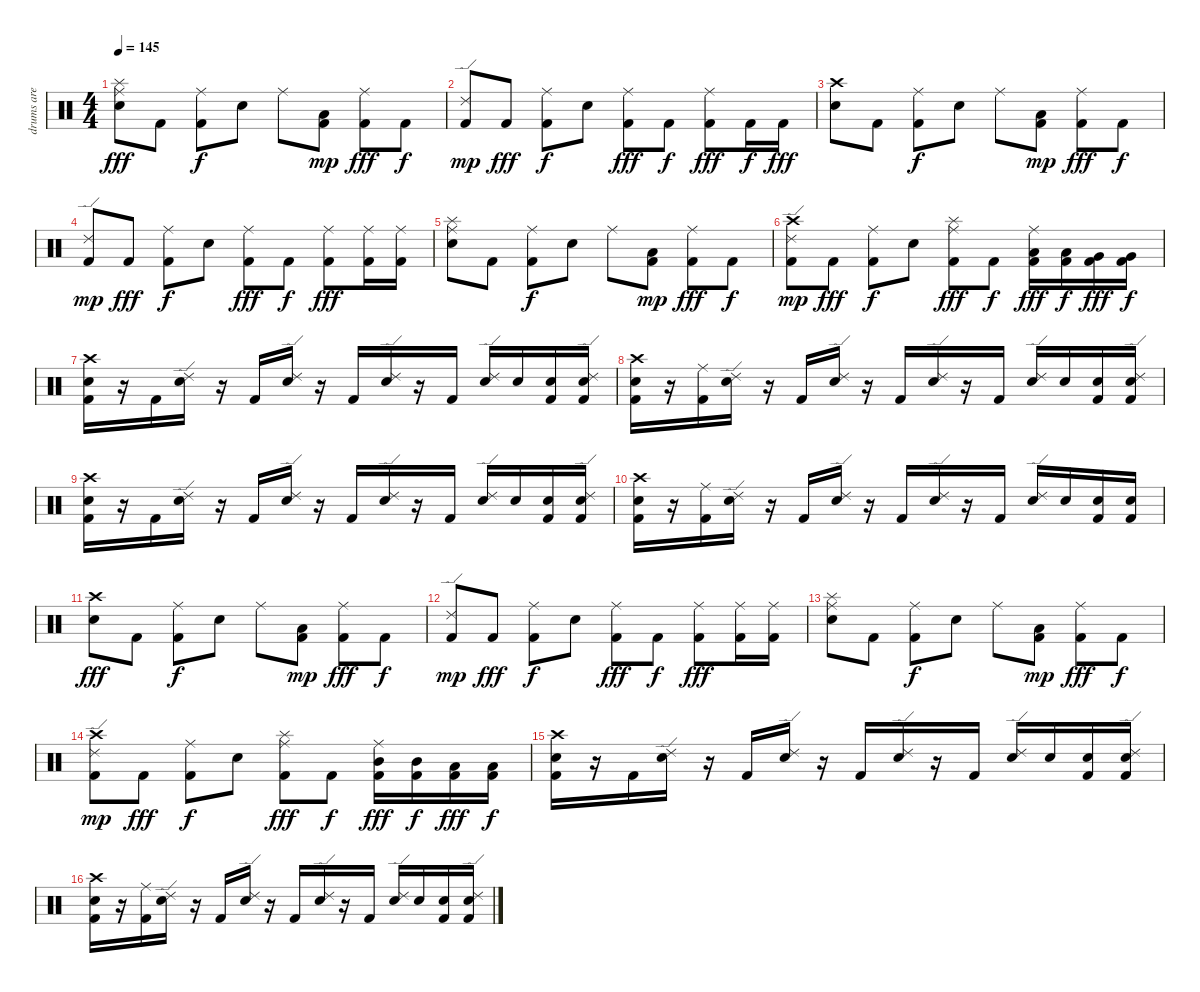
\track ("drums are cool   >.<" "drums are ") {instrument percussion}
\staff {score}
\articulation defaults
\ts (4 4)
\tempo 145
\clef neutral
\ks c
("Splash (hit)" "Ride (middle)" "Snare (hit) 2").8{dy fff} "Kick (hit) 2".8 ("Ride (middle)" "Kick (hit) 2").8{dy f} "Snare (hit) 2".8 "Ride (middle)".8 ("Low Tom (hit)" "Kick (hit) 2").8{dy mp} ("Ride (middle)" "Kick (hit) 2").8{dy fff} "Kick (hit) 2".8{dy f} |
("Ride (edge) 2" "Kick (hit) 2").8{dy mp} "Kick (hit) 2".8{dy fff} ("Ride (middle)" "Kick (hit) 2").8{dy f} "Snare (hit) 2".8 ("Ride (middle)" "Kick (hit) 2").8{dy fff} "Kick (hit) 2".8{dy f} ("Ride (middle)" "Kick (hit) 2").8{dy fff} "Kick (hit) 2".16{dy f} "Kick (hit) 2".16{dy fff} |
("Crash high (hit)" "Snare (hit) 2").8 "Kick (hit) 2".8 ("Ride (middle)" "Kick (hit) 2").8{dy f} "Snare (hit) 2".8 "Ride (middle)".8 ("Low Tom (hit)" "Kick (hit) 2").8{dy mp} ("Ride (middle)" "Kick (hit) 2").8{dy fff} "Kick (hit) 2".8{dy f} |
("Ride (edge) 2" "Kick (hit) 2").8{dy mp} "Kick (hit) 2".8{dy fff} ("Ride (middle)" "Kick (hit) 2").8{dy f} "Snare (hit) 2".8 ("Ride (middle)" "Kick (hit) 2").8{dy fff} "Kick (hit) 2".8{dy f} ("Ride (middle)" "Kick (hit) 2").8{dy fff} ("Ride (middle)" "Kick (hit) 2").16 ("Ride (middle)" "Kick (hit) 2").16 |
("Splash (hit)" "Ride (middle)" "Snare (hit) 2").8 "Kick (hit) 2".8 ("Ride (middle)" "Kick (hit) 2").8{dy f} "Snare (hit) 2".8 "Ride (middle)".8 ("Low Tom (hit)" "Kick (hit) 2").8{dy mp} ("Ride (middle)" "Kick (hit) 2").8{dy fff} "Kick (hit) 2".8{dy f} |
("Crash high (hit)" "Ride (edge) 2" "Kick (hit) 2").8{dy mp} "Kick (hit) 2".8{dy fff} ("Ride (middle)" "Kick (hit) 2").8{dy f} "Snare (hit) 2".8 ("Splash (hit)" "Ride (middle)" "Kick (hit) 2").8{dy fff} "Kick (hit) 2".8{dy f} ("Ride (middle)" "Low Tom (hit)" "Kick (hit) 2").16{dy fff} ("Low Tom (hit)" "Kick (hit) 2").16{dy f} ("Very Low Tom (hit)" "Kick (hit) 2").16{dy fff} ("Very Low Tom (hit)" "Kick (hit) 2").16{dy f} |
("Crash high (hit)" "Snare (hit) 2" "Kick (hit) 2").16 r.16 "Kick (hit) 2".16 ("Ride (edge) 2" "Snare (hit) 2").16 r.16 "Kick (hit) 2".16 ("Ride (edge) 2" "Snare (hit) 2").16 r.16 "Kick (hit) 2".16 ("Ride (edge) 2" "Snare (hit) 2").16 r.16 "Kick (hit) 2".16 ("Ride (edge) 2" "Snare (hit) 2").16 "Snare (hit) 2".16 ("Snare (hit) 2" "Kick (hit) 2").16 ("Ride (edge) 2" "Snare (hit) 2" "Kick (hit) 2").16 |
("Crash high (hit)" "Snare (hit) 2" "Kick (hit) 2").16 r.16 ("Ride (middle)" "Kick (hit) 2").16 ("Ride (edge) 2" "Snare (hit) 2").16 r.16 "Kick (hit) 2".16 ("Ride (edge) 2" "Snare (hit) 2").16 r.16 "Kick (hit) 2".16 ("Ride (edge) 2" "Snare (hit) 2").16 r.16 "Kick (hit) 2".16 ("Ride (edge) 2" "Snare (hit) 2").16 "Snare (hit) 2".16 ("Snare (hit) 2" "Kick (hit) 2").16 ("Ride (edge) 2" "Snare (hit) 2" "Kick (hit) 2").16 |
("Crash high (hit)" "Snare (hit) 2" "Kick (hit) 2").16 r.16 "Kick (hit) 2".16 ("Ride (edge) 2" "Snare (hit) 2").16 r.16 "Kick (hit) 2".16 ("Ride (edge) 2" "Snare (hit) 2").16 r.16 "Kick (hit) 2".16 ("Ride (edge) 2" "Snare (hit) 2").16 r.16 "Kick (hit) 2".16 ("Ride (edge) 2" "Snare (hit) 2").16 "Snare (hit) 2".16 ("Snare (hit) 2" "Kick (hit) 2").16 ("Ride (edge) 2" "Snare (hit) 2" "Kick (hit) 2").16 |
("Crash high (hit)" "Snare (hit) 2" "Kick (hit) 2").16 r.16 ("Ride (middle)" "Kick (hit) 2").16 ("Ride (edge) 2" "Snare (hit) 2").16 r.16 "Kick (hit) 2".16 ("Ride (edge) 2" "Snare (hit) 2").16 r.16 "Kick (hit) 2".16 ("Ride (edge) 2" "Snare (hit) 2").16 r.16 "Kick (hit) 2".16 ("Ride (edge) 2" "Snare (hit) 2").16 "Snare (hit) 2".16 ("Snare (hit) 2" "Kick (hit) 2").16 ("Snare (hit) 2" "Kick (hit) 2").16 |
("Crash high (hit)" "Snare (hit) 2").8{dy fff volume 14} "Kick (hit) 2".8 ("Ride (middle)" "Kick (hit) 2").8{dy f} "Snare (hit) 2".8 "Ride (middle)".8 ("Low Tom (hit)" "Kick (hit) 2").8{dy mp} ("Ride (middle)" "Kick (hit) 2").8{dy fff} "Kick (hit) 2".8{dy f} |
("Ride (edge) 2" "Kick (hit) 2").8{dy mp} "Kick (hit) 2".8{dy fff} ("Ride (middle)" "Kick (hit) 2").8{dy f} "Snare (hit) 2".8 ("Ride (middle)" "Kick (hit) 2").8{dy fff} "Kick (hit) 2".8{dy f} ("Ride (middle)" "Kick (hit) 2").8{dy fff} ("Ride (middle)" "Kick (hit) 2").16 ("Ride (middle)" "Kick (hit) 2").16 |
("Splash (hit)" "Ride (middle)" "Snare (hit) 2").8 "Kick (hit) 2".8 ("Ride (middle)" "Kick (hit) 2").8{dy f} "Snare (hit) 2".8 "Ride (middle)".8 ("Low Tom (hit)" "Kick (hit) 2").8{dy mp} ("Ride (middle)" "Kick (hit) 2").8{dy fff} "Kick (hit) 2".8{dy f} |
("Crash high (hit)" "Ride (edge) 2" "Kick (hit) 2").8{dy mp} "Kick (hit) 2".8{dy fff} ("Ride (middle)" "Kick (hit) 2").8{dy f} "Snare (hit) 2".8 ("Splash (hit)" "Ride (middle)" "Kick (hit) 2").8{dy fff} "Kick (hit) 2".8{dy f} ("Ride (middle)" "Mid Tom (hit)" "Kick (hit) 2").16{dy fff} ("Mid Tom (hit)" "Kick (hit) 2").16{dy f} ("Low Tom (hit)" "Kick (hit) 2").16{dy fff} ("Low Tom (hit)" "Kick (hit) 2").16{dy f} |
("Crash high (hit)" "Snare (hit) 2" "Kick (hit) 2").16 r.16 "Kick (hit) 2".16 ("Ride (edge) 2" "Snare (hit) 2").16 r.16 "Kick (hit) 2".16 ("Ride (edge) 2" "Snare (hit) 2").16 r.16 "Kick (hit) 2".16 ("Ride (edge) 2" "Snare (hit) 2").16 r.16 "Kick (hit) 2".16 ("Ride (edge) 2" "Snare (hit) 2").16 "Snare (hit) 2".16 ("Snare (hit) 2" "Kick (hit) 2").16 ("Ride (edge) 2" "Snare (hit) 2" "Kick (hit) 2").16 |
("Crash high (hit)" "Snare (hit) 2" "Kick (hit) 2").16 r.16 ("Ride (middle)" "Kick (hit) 2").16 ("Ride (edge) 2" "Snare (hit) 2").16 r.16 "Kick (hit) 2".16 ("Ride (edge) 2" "Snare (hit) 2").16 r.16 "Kick (hit) 2".16 ("Ride (edge) 2" "Snare (hit) 2").16 r.16 "Kick (hit) 2".16 ("Ride (edge) 2" "Snare (hit) 2").16 "Snare (hit) 2".16 ("Snare (hit) 2" "Kick (hit) 2").16 ("Ride (edge) 2" "Snare (hit) 2" "Kick (hit) 2").16
